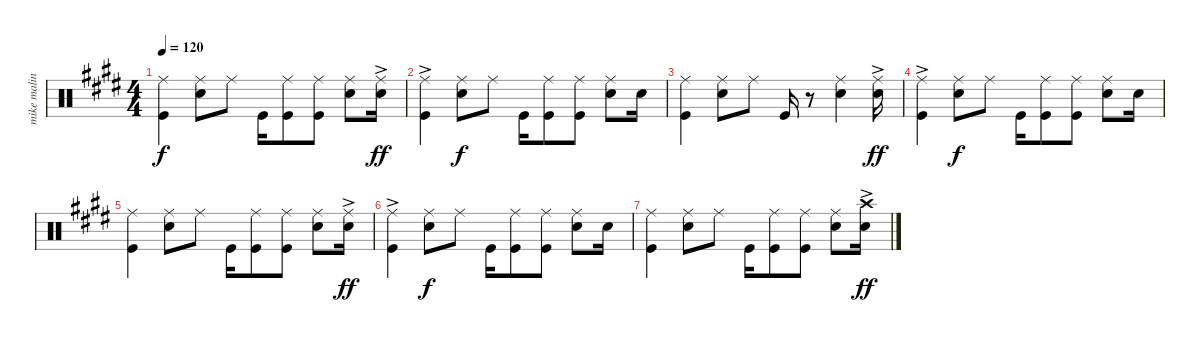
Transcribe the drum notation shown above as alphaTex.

\track ("mike malinin(drums)" "mike malin") {instrument percussion}
\staff {score}
\articulation defaults
\ts (4 4)
\tempo 120
\clef neutral
\ks e
("Kick (hit)" "Ride (middle)").4{dy f} ("Ride (middle)" "Snare (hit) 2").8 "Ride (middle)".8 "Kick (hit)".16 ("Ride (middle)" "Kick (hit)").8 ("Ride (middle)" "Kick (hit)").8 ("Ride (middle)" "Snare (hit) 2").8 ("Ride (middle)"{ac} "Snare (hit) 2").16{dy ff} |
("Kick (hit)"{ac} "Ride (middle)").4 ("Ride (middle)" "Snare (hit) 2").8{dy f} "Ride (middle)".8 "Kick (hit)".16 ("Ride (middle)" "Kick (hit)").8 ("Ride (middle)" "Kick (hit)").8 ("Ride (middle)" "Snare (hit) 2").8 "Snare (hit) 2".16 |
("Kick (hit)" "Ride (middle)").4 ("Ride (middle)" "Snare (hit) 2").8 "Ride (middle)".8 "Kick (hit)".16 r.8 ("Ride (middle)" "Snare (hit) 2").4 ("Ride (middle)"{ac} "Snare (hit) 2").16{dy ff} |
("Kick (hit)"{ac} "Ride (middle)").4 ("Ride (middle)" "Snare (hit) 2").8{dy f} "Ride (middle)".8 "Kick (hit)".16 ("Ride (middle)" "Kick (hit)").8 ("Ride (middle)" "Kick (hit)").8 ("Ride (middle)" "Snare (hit) 2").8 "Snare (hit) 2".16 |
("Kick (hit)" "Ride (middle)").4 ("Ride (middle)" "Snare (hit) 2").8 "Ride (middle)".8 "Kick (hit)".16 ("Ride (middle)" "Kick (hit)").8 ("Ride (middle)" "Kick (hit)").8 ("Ride (middle)" "Snare (hit) 2").8 ("Ride (middle)"{ac} "Snare (hit) 2").16{dy ff} |
("Kick (hit)"{ac} "Ride (middle)").4 ("Ride (middle)" "Snare (hit) 2").8{dy f} "Ride (middle)".8 "Kick (hit)".16 ("Ride (middle)" "Kick (hit)").8 ("Ride (middle)" "Kick (hit)").8 ("Ride (middle)" "Snare (hit) 2").8 "Snare (hit) 2".16 |
("Kick (hit)" "Ride (middle)").4 ("Ride (middle)" "Snare (hit) 2").8 "Ride (middle)".8 "Kick (hit)".16 ("Ride (middle)" "Kick (hit)").8 ("Ride (middle)" "Kick (hit)").8 ("Ride (middle)" "Snare (hit) 2").8 ("Crash high (hit)"{ac} "Snare (hit) 2").16{dy ff}
